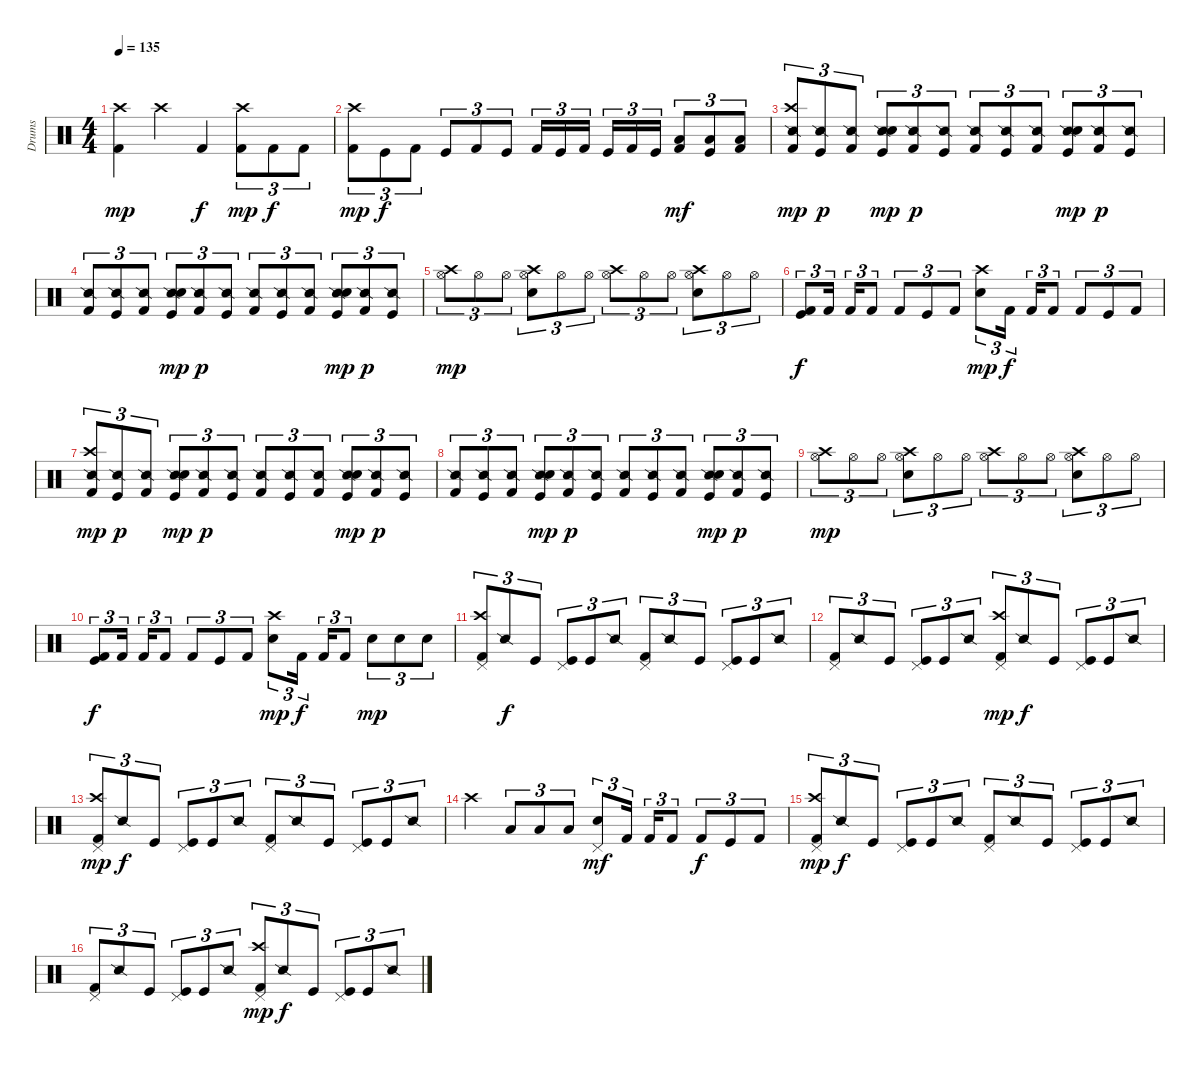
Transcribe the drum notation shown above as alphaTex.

\track ("Drums" "Drums") {instrument percussion}
\staff {score}
\articulation defaults
\ts (4 4)
\tempo 135
\clef neutral
\ks c
("Kick (hit) 2" "Crash high (hit)").4{dy mp} "Crash high (hit)".4 "Kick (hit) 2".4{dy f} ("Kick (hit) 2" "Crash high (hit)").8{tu (3 2) dy mp} "Kick (hit) 2".8{tu (3 2) dy f} "Kick (hit) 2".8{tu (3 2)} |
("Kick (hit) 2" "Crash high (hit)").8{tu (3 2) dy mp} "Kick (hit)".8{tu (3 2) dy f} "Kick (hit) 2".8{tu (3 2)} "Kick (hit)".8{tu (3 2)} "Kick (hit) 2".8{tu (3 2)} "Kick (hit)".8{tu (3 2)} "Kick (hit) 2".16{tu (3 2)} "Kick (hit)".16{tu (3 2)} "Kick (hit) 2".16{tu (3 2)} "Kick (hit)".16{tu (3 2)} "Kick (hit) 2".16{tu (3 2)} "Kick (hit)".16{tu (3 2)} ("Kick (hit) 2" "Low Floor Tom (hit)").8{tu (3 2) dy mf} ("Kick (hit)" "Low Floor Tom (hit)").8{tu (3 2)} ("Kick (hit) 2" "Low Floor Tom (hit)").8{tu (3 2)} |
("Kick (hit) 2" "Snare (side stick) 2" "Crash high (hit)").8{tu (3 2) dy mp} ("Kick (hit)" "Snare (side stick) 2").8{tu (3 2) dy p} ("Kick (hit) 2" "Snare (side stick) 2").8{tu (3 2)} ("Kick (hit)" "Snare (side stick) 2" "Snare (hit) 2").8{tu (3 2) dy mp} ("Kick (hit) 2" "Snare (side stick) 2").8{tu (3 2) dy p} ("Kick (hit)" "Snare (side stick) 2").8{tu (3 2)} ("Kick (hit) 2" "Snare (side stick) 2").8{tu (3 2)} ("Kick (hit)" "Snare (side stick) 2").8{tu (3 2)} ("Kick (hit) 2" "Snare (side stick) 2").8{tu (3 2)} ("Kick (hit)" "Snare (side stick) 2" "Snare (hit) 2").8{tu (3 2) dy mp} ("Kick (hit) 2" "Snare (side stick) 2").8{tu (3 2) dy p} ("Kick (hit)" "Snare (side stick) 2").8{tu (3 2)} |
("Kick (hit) 2" "Snare (side stick) 2").8{tu (3 2)} ("Kick (hit)" "Snare (side stick) 2").8{tu (3 2)} ("Kick (hit) 2" "Snare (side stick) 2").8{tu (3 2)} ("Kick (hit)" "Snare (side stick) 2" "Snare (hit) 2").8{tu (3 2) dy mp} ("Kick (hit) 2" "Snare (side stick) 2").8{tu (3 2) dy p} ("Kick (hit)" "Snare (side stick) 2").8{tu (3 2)} ("Kick (hit) 2" "Snare (side stick) 2").8{tu (3 2)} ("Kick (hit)" "Snare (side stick) 2").8{tu (3 2)} ("Kick (hit) 2" "Snare (side stick) 2").8{tu (3 2)} ("Kick (hit)" "Snare (side stick) 2" "Snare (hit) 2").8{tu (3 2) dy mp} ("Kick (hit) 2" "Snare (side stick) 2").8{tu (3 2) dy p} ("Kick (hit)" "Snare (side stick) 2").8{tu (3 2)} |
("Hi-Hat (open)" "Crash high (hit)").8{tu (3 2) dy mp} "Hi-Hat (open)".8{tu (3 2)} "Hi-Hat (open)".8{tu (3 2)} ("Hi-Hat (open)" "Snare (hit) 2" "Crash high (hit)").8{tu (3 2)} "Hi-Hat (open)".8{tu (3 2)} "Hi-Hat (open)".8{tu (3 2)} ("Hi-Hat (open)" "Crash high (hit)").8{tu (3 2)} "Hi-Hat (open)".8{tu (3 2)} "Hi-Hat (open)".8{tu (3 2)} ("Hi-Hat (open)" "Snare (hit) 2" "Crash high (hit)").8{tu (3 2)} "Hi-Hat (open)".8{tu (3 2)} "Hi-Hat (open)".8{tu (3 2)} |
("Kick (hit) 2" "Kick (hit)").8{tu (3 2) dy f} "Kick (hit) 2".16{tu (3 2)} "Kick (hit) 2".16{tu (3 2)} "Kick (hit) 2".8{tu (3 2)} "Kick (hit) 2".8{tu (3 2)} "Kick (hit)".8{tu (3 2)} "Kick (hit) 2".8{tu (3 2)} ("Snare (hit) 2" "Crash high (hit)").8{tu (3 2) dy mp} "Kick (hit) 2".16{tu (3 2) dy f} "Kick (hit) 2".16{tu (3 2)} "Kick (hit) 2".8{tu (3 2)} "Kick (hit) 2".8{tu (3 2)} "Kick (hit)".8{tu (3 2)} "Kick (hit) 2".8{tu (3 2)} |
("Kick (hit) 2" "Snare (side stick) 2" "Crash high (hit)").8{tu (3 2) dy mp} ("Kick (hit)" "Snare (side stick) 2").8{tu (3 2) dy p} ("Kick (hit) 2" "Snare (side stick) 2").8{tu (3 2)} ("Kick (hit)" "Snare (side stick) 2" "Snare (hit) 2").8{tu (3 2) dy mp} ("Kick (hit) 2" "Snare (side stick) 2").8{tu (3 2) dy p} ("Kick (hit)" "Snare (side stick) 2").8{tu (3 2)} ("Kick (hit) 2" "Snare (side stick) 2").8{tu (3 2)} ("Kick (hit)" "Snare (side stick) 2").8{tu (3 2)} ("Kick (hit) 2" "Snare (side stick) 2").8{tu (3 2)} ("Kick (hit)" "Snare (side stick) 2" "Snare (hit) 2").8{tu (3 2) dy mp} ("Kick (hit) 2" "Snare (side stick) 2").8{tu (3 2) dy p} ("Kick (hit)" "Snare (side stick) 2").8{tu (3 2)} |
("Kick (hit) 2" "Snare (side stick) 2").8{tu (3 2)} ("Kick (hit)" "Snare (side stick) 2").8{tu (3 2)} ("Kick (hit) 2" "Snare (side stick) 2").8{tu (3 2)} ("Kick (hit)" "Snare (side stick) 2" "Snare (hit) 2").8{tu (3 2) dy mp} ("Kick (hit) 2" "Snare (side stick) 2").8{tu (3 2) dy p} ("Kick (hit)" "Snare (side stick) 2").8{tu (3 2)} ("Kick (hit) 2" "Snare (side stick) 2").8{tu (3 2)} ("Kick (hit)" "Snare (side stick) 2").8{tu (3 2)} ("Kick (hit) 2" "Snare (side stick) 2").8{tu (3 2)} ("Kick (hit)" "Snare (side stick) 2" "Snare (hit) 2").8{tu (3 2) dy mp} ("Kick (hit) 2" "Snare (side stick) 2").8{tu (3 2) dy p} ("Kick (hit)" "Snare (side stick) 2").8{tu (3 2)} |
("Hi-Hat (open)" "Crash high (hit)").8{tu (3 2) dy mp} "Hi-Hat (open)".8{tu (3 2)} "Hi-Hat (open)".8{tu (3 2)} ("Hi-Hat (open)" "Snare (hit) 2" "Crash high (hit)").8{tu (3 2)} "Hi-Hat (open)".8{tu (3 2)} "Hi-Hat (open)".8{tu (3 2)} ("Hi-Hat (open)" "Crash high (hit)").8{tu (3 2)} "Hi-Hat (open)".8{tu (3 2)} "Hi-Hat (open)".8{tu (3 2)} ("Hi-Hat (open)" "Snare (hit) 2" "Crash high (hit)").8{tu (3 2)} "Hi-Hat (open)".8{tu (3 2)} "Hi-Hat (open)".8{tu (3 2)} |
("Kick (hit) 2" "Kick (hit)").8{tu (3 2) dy f} "Kick (hit) 2".16{tu (3 2)} "Kick (hit) 2".16{tu (3 2)} "Kick (hit) 2".8{tu (3 2)} "Kick (hit) 2".8{tu (3 2)} "Kick (hit)".8{tu (3 2)} "Kick (hit) 2".8{tu (3 2)} ("Snare (hit) 2" "Crash high (hit)").8{tu (3 2) dy mp} "Kick (hit) 2".16{tu (3 2) dy f} "Kick (hit) 2".16{tu (3 2)} "Kick (hit) 2".8{tu (3 2)} "Snare (hit) 2".8{tu (3 2) dy mp} "Snare (hit) 2".8{tu (3 2)} "Snare (hit) 2".8{tu (3 2)} |
("Kick (hit) 2" "Crash high (hit)" "Pedal Hi-Hat (hit)").8{tu (3 2)} "Snare (side stick) 2".8{tu (3 2) dy f} "Kick (hit)".8{tu (3 2)} ("Kick (hit)" "Pedal Hi-Hat (hit)").8{tu (3 2)} "Kick (hit)".8{tu (3 2)} "Snare (side stick) 2".8{tu (3 2)} ("Kick (hit) 2" "Pedal Hi-Hat (hit)").8{tu (3 2)} "Snare (side stick) 2".8{tu (3 2)} "Kick (hit)".8{tu (3 2)} ("Kick (hit)" "Pedal Hi-Hat (hit)").8{tu (3 2)} "Kick (hit)".8{tu (3 2)} "Snare (side stick) 2".8{tu (3 2)} |
("Kick (hit) 2" "Pedal Hi-Hat (hit)").8{tu (3 2)} "Snare (side stick) 2".8{tu (3 2)} "Kick (hit)".8{tu (3 2)} ("Kick (hit)" "Pedal Hi-Hat (hit)").8{tu (3 2)} "Kick (hit)".8{tu (3 2)} "Snare (side stick) 2".8{tu (3 2)} ("Kick (hit) 2" "Pedal Hi-Hat (hit)" "Crash high (hit)").8{tu (3 2) dy mp} "Snare (side stick) 2".8{tu (3 2) dy f} "Kick (hit)".8{tu (3 2)} ("Kick (hit)" "Pedal Hi-Hat (hit)").8{tu (3 2)} "Kick (hit)".8{tu (3 2)} "Snare (side stick) 2".8{tu (3 2)} |
("Kick (hit) 2" "Crash high (hit)" "Pedal Hi-Hat (hit)").8{tu (3 2) dy mp} "Snare (side stick) 2".8{tu (3 2) dy f} "Kick (hit)".8{tu (3 2)} ("Kick (hit)" "Pedal Hi-Hat (hit)").8{tu (3 2)} "Kick (hit)".8{tu (3 2)} "Snare (side stick) 2".8{tu (3 2)} ("Kick (hit) 2" "Pedal Hi-Hat (hit)").8{tu (3 2)} "Snare (side stick) 2".8{tu (3 2)} "Kick (hit)".8{tu (3 2)} ("Kick (hit)" "Pedal Hi-Hat (hit)").8{tu (3 2)} "Kick (hit)".8{tu (3 2)} "Snare (side stick) 2".8{tu (3 2)} |
"Crash high (hit)".4 "Low Floor Tom (hit)".8{tu (3 2)} "Low Floor Tom (hit)".8{tu (3 2)} "Low Floor Tom (hit)".8{tu (3 2)} ("Snare (hit) 2" "Pedal Hi-Hat (hit)").8{tu (3 2) dy mf} "Kick (hit) 2".16{tu (3 2)} "Kick (hit) 2".16{tu (3 2)} "Kick (hit) 2".8{tu (3 2)} "Kick (hit) 2".8{tu (3 2) dy f} "Kick (hit)".8{tu (3 2)} "Kick (hit) 2".8{tu (3 2)} |
("Kick (hit) 2" "Crash high (hit)" "Pedal Hi-Hat (hit)").8{tu (3 2) dy mp} "Snare (side stick) 2".8{tu (3 2) dy f} "Kick (hit)".8{tu (3 2)} ("Kick (hit)" "Pedal Hi-Hat (hit)").8{tu (3 2)} "Kick (hit)".8{tu (3 2)} "Snare (side stick) 2".8{tu (3 2)} ("Kick (hit) 2" "Pedal Hi-Hat (hit)").8{tu (3 2)} "Snare (side stick) 2".8{tu (3 2)} "Kick (hit)".8{tu (3 2)} ("Kick (hit)" "Pedal Hi-Hat (hit)").8{tu (3 2)} "Kick (hit)".8{tu (3 2)} "Snare (side stick) 2".8{tu (3 2)} |
("Kick (hit) 2" "Pedal Hi-Hat (hit)").8{tu (3 2)} "Snare (side stick) 2".8{tu (3 2)} "Kick (hit)".8{tu (3 2)} ("Kick (hit)" "Pedal Hi-Hat (hit)").8{tu (3 2)} "Kick (hit)".8{tu (3 2)} "Snare (side stick) 2".8{tu (3 2)} ("Kick (hit) 2" "Pedal Hi-Hat (hit)" "Crash high (hit)").8{tu (3 2) dy mp} "Snare (side stick) 2".8{tu (3 2) dy f} "Kick (hit)".8{tu (3 2)} ("Kick (hit)" "Pedal Hi-Hat (hit)").8{tu (3 2)} "Kick (hit)".8{tu (3 2)} "Snare (side stick) 2".8{tu (3 2)}
